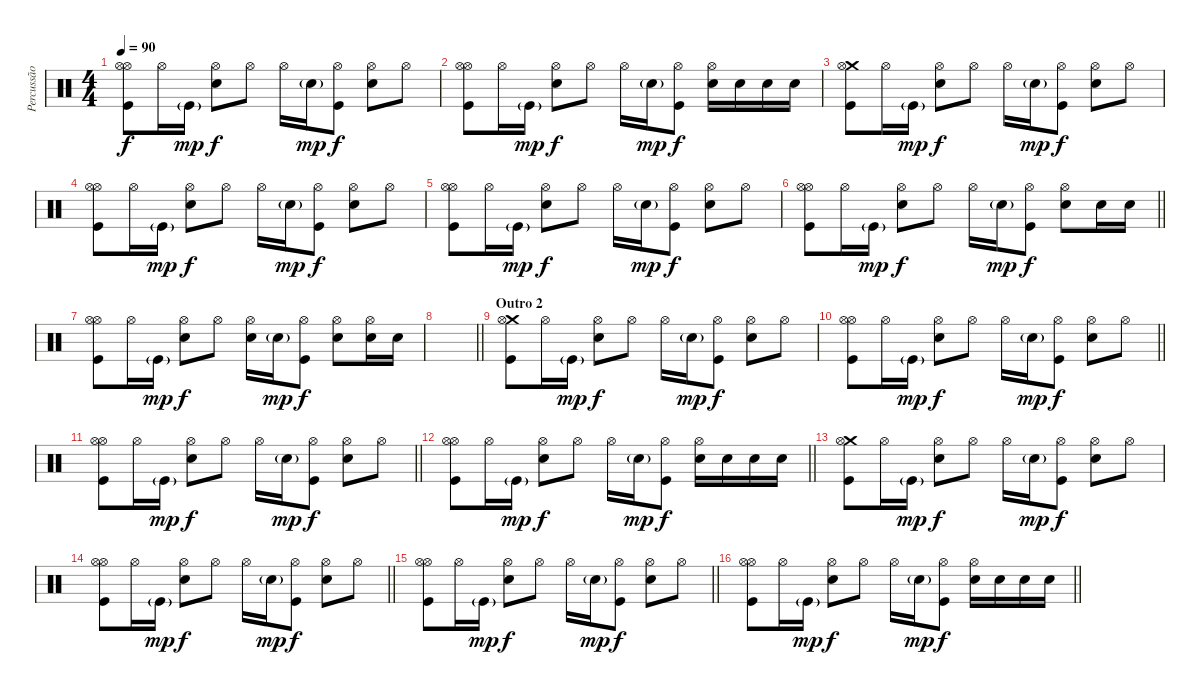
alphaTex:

\track ("Percussão" "Percussão") {instrument percussion}
\staff {score}
\articulation defaults
\ts (4 4)
\tempo 90
\clef neutral
\ks c
("Hi-Hat (open)" "Kick (hit)" "Hi-Hat (open)").8{dy f} "Hi-Hat (open)".16 "Kick (hit)"{g}.16{dy mp} ("Snare (hit) 2" "Hi-Hat (open)").8{dy f} "Hi-Hat (open)".8 "Hi-Hat (open)".16 "Snare (hit) 2"{g}.16{dy mp} ("Hi-Hat (open)" "Kick (hit)").8{dy f} ("Hi-Hat (open)" "Snare (hit) 2").8 "Hi-Hat (open)".8 |
("Hi-Hat (open)" "Kick (hit)" "Hi-Hat (open)").8 "Hi-Hat (open)".16 "Kick (hit)"{g}.16{dy mp} ("Snare (hit) 2" "Hi-Hat (open)").8{dy f} "Hi-Hat (open)".8 "Hi-Hat (open)".16 "Snare (hit) 2"{g}.16{dy mp} ("Hi-Hat (open)" "Kick (hit)").8{dy f} ("Hi-Hat (open)" "Snare (hit) 2").16 "Snare (hit) 2".16 "Snare (hit) 2".16 "Snare (hit) 2".16 |
("Crash medium (hit)" "Kick (hit)" "Hi-Hat (open)").8 "Hi-Hat (open)".16 "Kick (hit)"{g}.16{dy mp} ("Snare (hit) 2" "Hi-Hat (open)").8{dy f} "Hi-Hat (open)".8 "Hi-Hat (open)".16 "Snare (hit) 2"{g}.16{dy mp} ("Hi-Hat (open)" "Kick (hit)").8{dy f} ("Hi-Hat (open)" "Snare (hit) 2").8 "Hi-Hat (open)".8 |
("Hi-Hat (open)" "Kick (hit)" "Hi-Hat (open)").8 "Hi-Hat (open)".16 "Kick (hit)"{g}.16{dy mp} ("Snare (hit) 2" "Hi-Hat (open)").8{dy f} "Hi-Hat (open)".8 "Hi-Hat (open)".16 "Snare (hit) 2"{g}.16{dy mp} ("Hi-Hat (open)" "Kick (hit)").8{dy f} ("Hi-Hat (open)" "Snare (hit) 2").8 "Hi-Hat (open)".8 |
("Hi-Hat (open)" "Kick (hit)" "Hi-Hat (open)").8 "Hi-Hat (open)".16 "Kick (hit)"{g}.16{dy mp} ("Snare (hit) 2" "Hi-Hat (open)").8{dy f} "Hi-Hat (open)".8 "Hi-Hat (open)".16 "Snare (hit) 2"{g}.16{dy mp} ("Hi-Hat (open)" "Kick (hit)").8{dy f} ("Hi-Hat (open)" "Snare (hit) 2").8 "Hi-Hat (open)".8 |
\barLineRight lightlight
("Hi-Hat (open)" "Kick (hit)" "Hi-Hat (open)").8 "Hi-Hat (open)".16 "Kick (hit)"{g}.16{dy mp} ("Snare (hit) 2" "Hi-Hat (open)").8{dy f} "Hi-Hat (open)".8 "Hi-Hat (open)".16 "Snare (hit) 2"{g}.16{dy mp} ("Hi-Hat (open)" "Kick (hit)").8{dy f} ("Hi-Hat (open)" "Snare (hit) 2").8 "Snare (hit) 2".16 "Snare (hit) 2".16 |
("Hi-Hat (open)" "Kick (hit)" "Hi-Hat (open)").8 "Hi-Hat (open)".16 "Kick (hit)"{g}.16{dy mp} ("Snare (hit) 2" "Hi-Hat (open)").8{dy f} "Hi-Hat (open)".8 ("Hi-Hat (open)" "Snare (hit) 2").16 "Snare (hit) 2"{g}.16{dy mp} ("Hi-Hat (open)" "Kick (hit)").8{dy f} ("Hi-Hat (open)" "Snare (hit) 2").8 ("Snare (hit) 2" "Hi-Hat (open)").16 "Snare (hit) 2".16 |
\barLineRight lightlight
|
\section ("" "Outro 2")
("Crash medium (hit)" "Kick (hit)" "Hi-Hat (open)").8 "Hi-Hat (open)".16 "Kick (hit)"{g}.16{dy mp} ("Snare (hit) 2" "Hi-Hat (open)").8{dy f} "Hi-Hat (open)".8 "Hi-Hat (open)".16 "Snare (hit) 2"{g}.16{dy mp} ("Hi-Hat (open)" "Kick (hit)").8{dy f} ("Hi-Hat (open)" "Snare (hit) 2").8 "Hi-Hat (open)".8 |
\barLineRight lightlight
("Hi-Hat (open)" "Kick (hit)" "Hi-Hat (open)").8 "Hi-Hat (open)".16 "Kick (hit)"{g}.16{dy mp} ("Snare (hit) 2" "Hi-Hat (open)").8{dy f} "Hi-Hat (open)".8 "Hi-Hat (open)".16 "Snare (hit) 2"{g}.16{dy mp} ("Hi-Hat (open)" "Kick (hit)").8{dy f} ("Hi-Hat (open)" "Snare (hit) 2").8 "Hi-Hat (open)".8 |
\barLineRight lightlight
("Hi-Hat (open)" "Kick (hit)" "Hi-Hat (open)").8 "Hi-Hat (open)".16 "Kick (hit)"{g}.16{dy mp} ("Snare (hit) 2" "Hi-Hat (open)").8{dy f} "Hi-Hat (open)".8 "Hi-Hat (open)".16 "Snare (hit) 2"{g}.16{dy mp} ("Hi-Hat (open)" "Kick (hit)").8{dy f} ("Hi-Hat (open)" "Snare (hit) 2").8 "Hi-Hat (open)".8 |
\barLineRight lightlight
("Hi-Hat (open)" "Kick (hit)" "Hi-Hat (open)").8 "Hi-Hat (open)".16 "Kick (hit)"{g}.16{dy mp} ("Snare (hit) 2" "Hi-Hat (open)").8{dy f} "Hi-Hat (open)".8 "Hi-Hat (open)".16 "Snare (hit) 2"{g}.16{dy mp} ("Hi-Hat (open)" "Kick (hit)").8{dy f} ("Hi-Hat (open)" "Snare (hit) 2").16 "Snare (hit) 2".16 "Snare (hit) 2".16 "Snare (hit) 2".16 |
("Crash medium (hit)" "Kick (hit)" "Hi-Hat (open)").8{volume 11} "Hi-Hat (open)".16 "Kick (hit)"{g}.16{dy mp} ("Snare (hit) 2" "Hi-Hat (open)").8{dy f} "Hi-Hat (open)".8 "Hi-Hat (open)".16{volume 9} "Snare (hit) 2"{g}.16{dy mp} ("Hi-Hat (open)" "Kick (hit)").8{dy f} ("Hi-Hat (open)" "Snare (hit) 2").8 "Hi-Hat (open)".8 |
\barLineRight lightlight
("Hi-Hat (open)" "Kick (hit)" "Hi-Hat (open)").8{volume 8} "Hi-Hat (open)".16 "Kick (hit)"{g}.16{dy mp} ("Snare (hit) 2" "Hi-Hat (open)").8{dy f} "Hi-Hat (open)".8 "Hi-Hat (open)".16 "Snare (hit) 2"{g}.16{dy mp} ("Hi-Hat (open)" "Kick (hit)").8{dy f volume 6} ("Hi-Hat (open)" "Snare (hit) 2").8 "Hi-Hat (open)".8 |
\barLineRight lightlight
("Hi-Hat (open)" "Kick (hit)" "Hi-Hat (open)").8 "Hi-Hat (open)".16 "Kick (hit)"{g}.16{dy mp volume 4} ("Snare (hit) 2" "Hi-Hat (open)").8{dy f} "Hi-Hat (open)".8 "Hi-Hat (open)".16 "Snare (hit) 2"{g}.16{dy mp} ("Hi-Hat (open)" "Kick (hit)").8{dy f} ("Hi-Hat (open)" "Snare (hit) 2").8 "Hi-Hat (open)".8{volume 4} |
\barLineRight lightlight
("Hi-Hat (open)" "Kick (hit)" "Hi-Hat (open)").8{volume 3} "Hi-Hat (open)".16 "Kick (hit)"{g}.16{dy mp} ("Snare (hit) 2" "Hi-Hat (open)").8{dy f} "Hi-Hat (open)".8 "Hi-Hat (open)".16 "Snare (hit) 2"{g}.16{dy mp} ("Hi-Hat (open)" "Kick (hit)").8{dy f volume 1} ("Hi-Hat (open)" "Snare (hit) 2").16 "Snare (hit) 2".16 "Snare (hit) 2".16 "Snare (hit) 2".16
